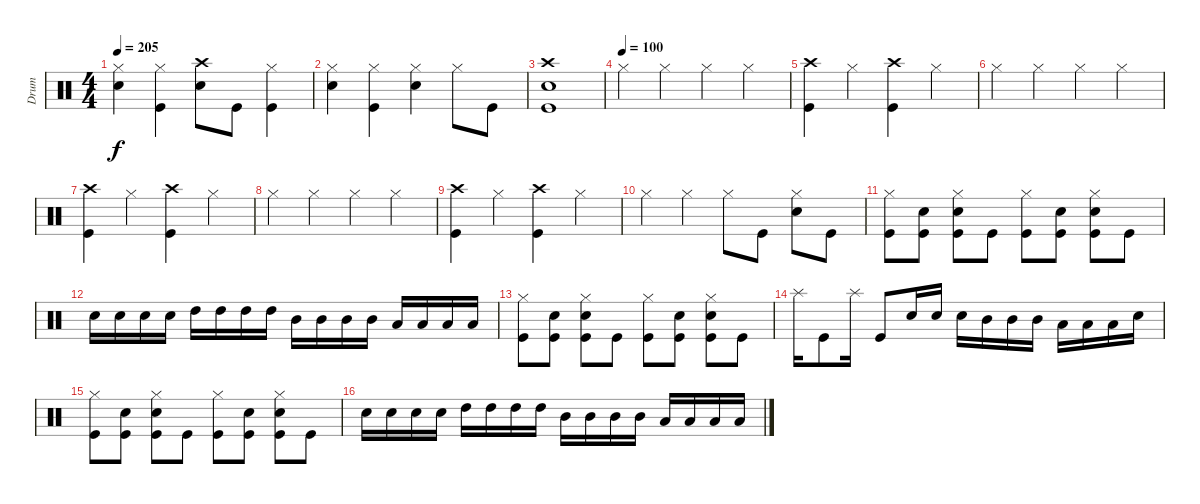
\track ("Drum" "Drum") {instrument percussion}
\staff {score}
\articulation defaults
\ts (4 4)
\tempo 205
\clef neutral
\ks c
("Hi-Hat (closed)" "Snare (hit) 2").4{dy f} ("Hi-Hat (closed)" "Kick (hit)").4 ("Crash high (hit)" "Snare (hit) 2").8 "Kick (hit)".8 ("Hi-Hat (closed)" "Kick (hit)").4 |
("Hi-Hat (closed)" "Snare (hit) 2").4 ("Hi-Hat (closed)" "Kick (hit)").4 ("Hi-Hat (closed)" "Snare (hit) 2").4 "Hi-Hat (closed)".8 "Kick (hit)".8 |
("Crash high (hit)" "Snare (hit) 2" "Kick (hit)").1 |
\tempo (100)
"Hi-Hat (closed)".4 "Hi-Hat (closed)".4 "Hi-Hat (closed)".4 "Hi-Hat (closed)".4 |
("Crash high (hit)" "Kick (hit)").4 "Hi-Hat (closed)".4 ("Crash high (hit)" "Kick (hit)").4 "Hi-Hat (closed)".4 |
"Hi-Hat (closed)".4 "Hi-Hat (closed)".4 "Hi-Hat (closed)".4 "Hi-Hat (closed)".4 |
("Crash high (hit)" "Kick (hit)").4 "Hi-Hat (closed)".4 ("Crash high (hit)" "Kick (hit)").4 "Hi-Hat (closed)".4 |
"Hi-Hat (closed)".4 "Hi-Hat (closed)".4 "Hi-Hat (closed)".4 "Hi-Hat (closed)".4 |
("Crash high (hit)" "Kick (hit)").4 "Hi-Hat (closed)".4 ("Crash high (hit)" "Kick (hit)").4 "Hi-Hat (closed)".4 |
"Hi-Hat (closed)".4 "Hi-Hat (closed)".4 "Hi-Hat (closed)".8 "Kick (hit)".8 ("Hi-Hat (closed)" "Snare (hit) 2").8 "Kick (hit)".8 |
("Hi-Hat (closed)" "Kick (hit)").8 ("Snare (hit) 2" "Kick (hit)").8 ("Hi-Hat (closed)" "Snare (hit) 2" "Kick (hit)").8 "Kick (hit)".8 ("Hi-Hat (closed)" "Kick (hit)").8 ("Snare (hit) 2" "Kick (hit)").8 ("Hi-Hat (closed)" "Snare (hit) 2" "Kick (hit)").8 "Kick (hit)".8 |
"Snare (hit) 2".16 "Snare (hit) 2".16 "Snare (hit) 2".16 "Snare (hit) 2".16 "High Tom (hit)".16 "High Tom (hit)".16 "High Tom (hit)".16 "High Tom (hit)".16 "Mid Tom (hit)".16 "Mid Tom (hit)".16 "Mid Tom (hit)".16 "Mid Tom (hit)".16 "Low Floor Tom (hit)".16 "Low Floor Tom (hit)".16 "Low Floor Tom (hit)".16 "Low Floor Tom (hit)".16 |
("Hi-Hat (closed)" "Kick (hit)").8 ("Snare (hit) 2" "Kick (hit)").8 ("Hi-Hat (closed)" "Snare (hit) 2" "Kick (hit)").8 "Kick (hit)".8 ("Hi-Hat (closed)" "Kick (hit)").8 ("Snare (hit) 2" "Kick (hit)").8 ("Hi-Hat (closed)" "Snare (hit) 2" "Kick (hit)").8 "Kick (hit)".8 |
"Splash (hit)".16 "Kick (hit)".8 "Splash (hit)".16 "Kick (hit)".8 "Snare (hit) 2".16 "Snare (hit) 2".16 "Snare (hit) 2".16 "Mid Tom (hit)".16 "Mid Tom (hit)".16 "Mid Tom (hit)".16 "Low Floor Tom (hit)".16 "Low Floor Tom (hit)".16 "Low Floor Tom (hit)".16 "Snare (hit) 2".16 |
("Hi-Hat (closed)" "Kick (hit)").8 ("Snare (hit) 2" "Kick (hit)").8 ("Hi-Hat (closed)" "Snare (hit) 2" "Kick (hit)").8 "Kick (hit)".8 ("Hi-Hat (closed)" "Kick (hit)").8 ("Snare (hit) 2" "Kick (hit)").8 ("Hi-Hat (closed)" "Snare (hit) 2" "Kick (hit)").8 "Kick (hit)".8 |
"Snare (hit) 2".16 "Snare (hit) 2".16 "Snare (hit) 2".16 "Snare (hit) 2".16 "High Tom (hit)".16 "High Tom (hit)".16 "High Tom (hit)".16 "High Tom (hit)".16 "Mid Tom (hit)".16 "Mid Tom (hit)".16 "Mid Tom (hit)".16 "Mid Tom (hit)".16 "Low Floor Tom (hit)".16 "Low Floor Tom (hit)".16 "Low Floor Tom (hit)".16 "Low Floor Tom (hit)".16
